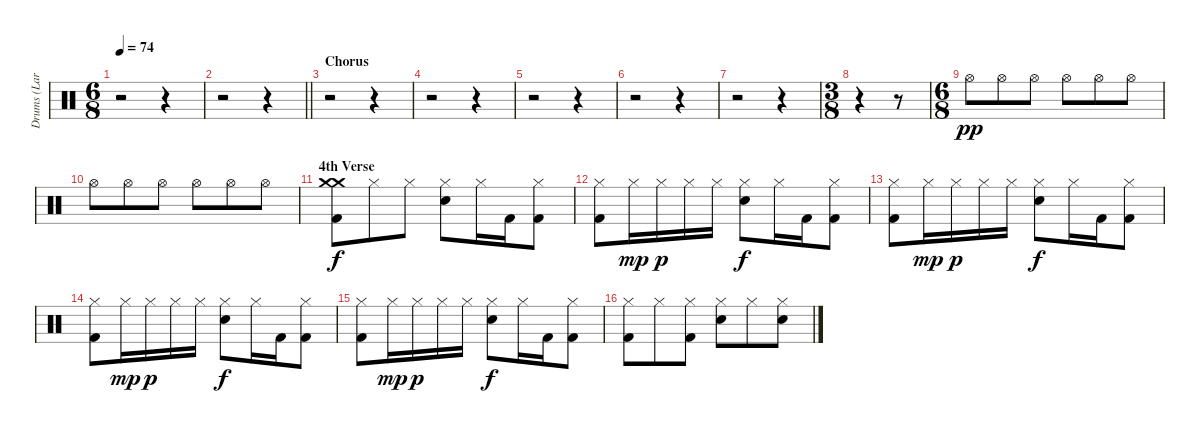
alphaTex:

\track ("Drums (Lars Ulrich)" "Drums (Lar") {instrument percussion}
\staff {score}
\articulation defaults
\ts (6 8)
\tempo 74
\clef neutral
\ks c
r.2{dy pp} r.4 |
\barLineRight lightlight
r.2 r.4 |
\section ("" "Chorus")
r.2 r.4 |
r.2 r.4 |
r.2 r.4 |
r.2 r.4 |
r.2 r.4 |
\ts (3 8)
r.4 r.8 |
\ts (6 8)
"Hi-Hat (open)".8 "Hi-Hat (open)".8 "Hi-Hat (open)".8 "Hi-Hat (open)".8 "Hi-Hat (open)".8 "Hi-Hat (open)".8 |
"Hi-Hat (open)".8 "Hi-Hat (open)".8 "Hi-Hat (open)".8 "Hi-Hat (open)".8 "Hi-Hat (open)".8 "Hi-Hat (open)".8 |
\section ("" "4th Verse")
("Crash medium (hit)" "Crash medium (hit)" "Kick (hit) 2").8{dy f} "Hi-Hat (closed)".8 "Hi-Hat (closed)".8 ("Hi-Hat (closed)" "Snare (hit) 2").8 "Hi-Hat (closed)".16 "Kick (hit) 2".16 ("Hi-Hat (closed)" "Kick (hit) 2").8 |
("Hi-Hat (closed)" "Kick (hit) 2").8 "Hi-Hat (closed)".16{dy mp} "Hi-Hat (closed)".16{dy p} "Hi-Hat (closed)".16 "Hi-Hat (closed)".16 ("Hi-Hat (closed)" "Snare (hit) 2").8{dy f} "Hi-Hat (closed)".16 "Kick (hit) 2".16 ("Hi-Hat (closed)" "Kick (hit) 2").8 |
("Hi-Hat (closed)" "Kick (hit) 2").8 "Hi-Hat (closed)".16{dy mp} "Hi-Hat (closed)".16{dy p} "Hi-Hat (closed)".16 "Hi-Hat (closed)".16 ("Hi-Hat (closed)" "Snare (hit) 2").8{dy f} "Hi-Hat (closed)".16 "Kick (hit) 2".16 ("Hi-Hat (closed)" "Kick (hit) 2").8 |
("Hi-Hat (closed)" "Kick (hit) 2").8 "Hi-Hat (closed)".16{dy mp} "Hi-Hat (closed)".16{dy p} "Hi-Hat (closed)".16 "Hi-Hat (closed)".16 ("Hi-Hat (closed)" "Snare (hit) 2").8{dy f} "Hi-Hat (closed)".16 "Kick (hit) 2".16 ("Hi-Hat (closed)" "Kick (hit) 2").8 |
("Hi-Hat (closed)" "Kick (hit) 2").8 "Hi-Hat (closed)".16{dy mp} "Hi-Hat (closed)".16{dy p} "Hi-Hat (closed)".16 "Hi-Hat (closed)".16 ("Hi-Hat (closed)" "Snare (hit) 2").8{dy f} "Hi-Hat (closed)".16 "Kick (hit) 2".16 ("Hi-Hat (closed)" "Kick (hit) 2").8 |
("Hi-Hat (closed)" "Kick (hit) 2").8 "Hi-Hat (closed)".8 ("Hi-Hat (closed)" "Kick (hit) 2").8 ("Hi-Hat (closed)" "Snare (hit) 2").8 "Hi-Hat (closed)".8 ("Hi-Hat (closed)" "Snare (hit) 2").8
